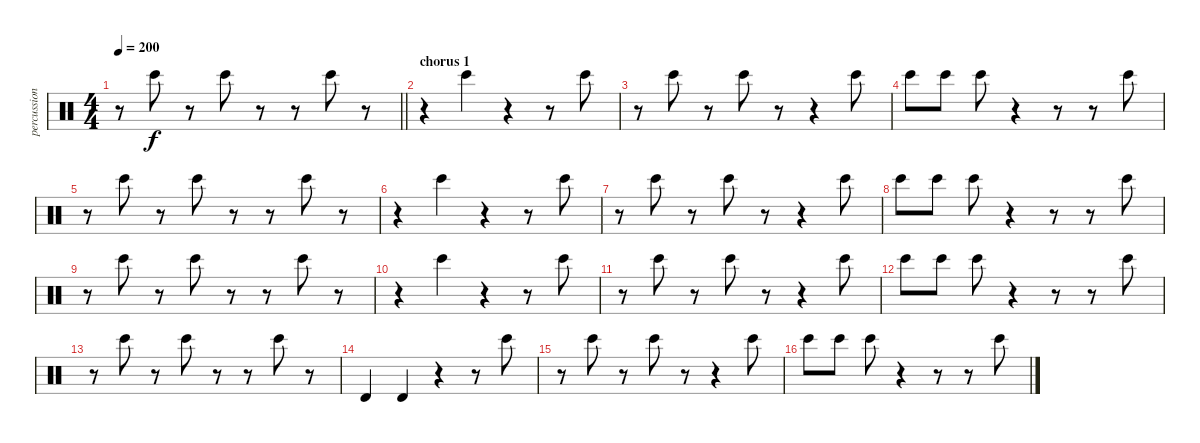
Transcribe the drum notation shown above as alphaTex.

\track ("percussion" "percussion") {instrument percussion}
\staff {score}
\articulation defaults
\ts (4 4)
\tempo 200
\clef neutral
\barLineRight lightlight
\ks c
r.8{dy f} "Bongo High (hit)".8 r.8 "Bongo High (hit)".8 r.8 r.8 "Bongo High (hit)".8 r.8 |
\section ("" "chorus 1")
r.4 "Bongo High (hit)".4 r.4 r.8 "Bongo High (hit)".8 |
r.8 "Bongo High (hit)".8 r.8 "Bongo High (hit)".8 r.8 r.4 "Bongo High (hit)".8 |
"Bongo High (hit)".8 "Bongo High (hit)".8 "Bongo High (hit)".8 r.4 r.8 r.8 "Bongo High (hit)".8 |
r.8 "Bongo High (hit)".8 r.8 "Bongo High (hit)".8 r.8 r.8 "Bongo High (hit)".8 r.8 |
r.4 "Bongo High (hit)".4 r.4 r.8 "Bongo High (hit)".8 |
r.8 "Bongo High (hit)".8 r.8 "Bongo High (hit)".8 r.8 r.4 "Bongo High (hit)".8 |
"Bongo High (hit)".8 "Bongo High (hit)".8 "Bongo High (hit)".8 r.4 r.8 r.8 "Bongo High (hit)".8 |
r.8 "Bongo High (hit)".8 r.8 "Bongo High (hit)".8 r.8 r.8 "Bongo High (hit)".8 r.8 |
r.4 "Bongo High (hit)".4 r.4 r.8 "Bongo High (hit)".8 |
r.8 "Bongo High (hit)".8 r.8 "Bongo High (hit)".8 r.8 r.4 "Bongo High (hit)".8 |
"Bongo High (hit)".8 "Bongo High (hit)".8 "Bongo High (hit)".8 r.4 r.8 r.8 "Bongo High (hit)".8 |
r.8 "Bongo High (hit)".8 r.8 "Bongo High (hit)".8 r.8 r.8 "Bongo High (hit)".8 r.8 |
"Timbale high (hit)".4{volume 16} "Timbale high (hit)".4 r.4{volume 13} r.8 "Bongo High (hit)".8 |
r.8 "Bongo High (hit)".8 r.8 "Bongo High (hit)".8 r.8 r.4 "Bongo High (hit)".8 |
"Bongo High (hit)".8 "Bongo High (hit)".8 "Bongo High (hit)".8 r.4 r.8 r.8 "Bongo High (hit)".8
